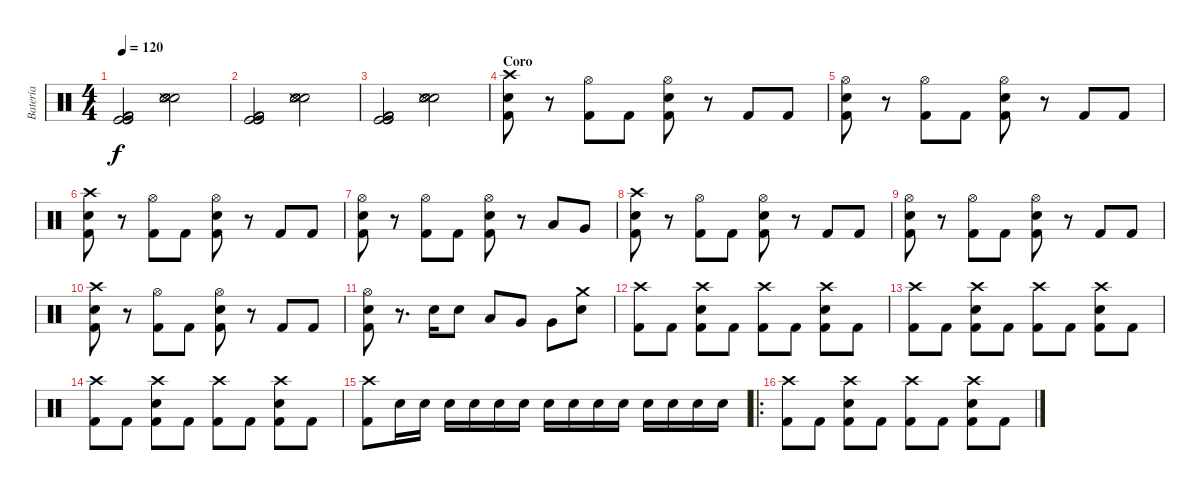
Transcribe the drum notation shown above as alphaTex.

\track ("Batería" "Batería") {instrument percussion}
\staff {score}
\articulation defaults
\ts (4 4)
\tempo 120
\clef neutral
\ks c
("Kick (hit) 2" "Kick (hit)" "Kick (hit) 2" "Kick (hit)" "Kick (hit) 2" "Kick (hit)").2{dy f} ("Electric Snare (hit)" "Snare (side stick) 3" "Snare (side stick) 3" "Snare (hit) 2" "Snare (side stick) 3" "Snare (hit) 2").2 |
("Kick (hit) 2" "Kick (hit)" "Kick (hit) 2" "Kick (hit)" "Kick (hit) 2" "Kick (hit)").2 ("Electric Snare (hit)" "Snare (side stick) 3" "Snare (side stick) 3" "Snare (hit) 2" "Snare (side stick) 3" "Snare (hit) 2").2 |
("Kick (hit) 2" "Kick (hit)" "Kick (hit) 2" "Kick (hit)" "Kick (hit) 2" "Kick (hit)").2 ("Electric Snare (hit)" "Snare (side stick) 3" "Snare (side stick) 3" "Snare (hit) 2" "Snare (side stick) 3" "Snare (hit) 2").2 |
\section ("" "Coro")
("Crash high (hit)" "Electric Snare (hit)" "Kick (hit) 2").8 r.8 ("Hi-Hat (open)" "Kick (hit) 2").8 "Kick (hit) 2".8 ("Electric Snare (hit)" "Hi-Hat (open)" "Kick (hit) 2").8 r.8 "Kick (hit) 2".8 "Kick (hit) 2".8 |
("Hi-Hat (open)" "Electric Snare (hit)" "Kick (hit) 2").8 r.8 ("Hi-Hat (open)" "Kick (hit) 2").8 "Kick (hit) 2".8 ("Electric Snare (hit)" "Hi-Hat (open)" "Kick (hit) 2").8 r.8 "Kick (hit) 2".8 "Kick (hit) 2".8 |
("Crash high (hit)" "Electric Snare (hit)" "Kick (hit) 2").8 r.8 ("Hi-Hat (open)" "Kick (hit) 2").8 "Kick (hit) 2".8 ("Electric Snare (hit)" "Hi-Hat (open)" "Kick (hit) 2").8 r.8 "Kick (hit) 2".8 "Kick (hit) 2".8 |
("Hi-Hat (open)" "Electric Snare (hit)" "Kick (hit) 2").8 r.8 ("Hi-Hat (open)" "Kick (hit) 2").8 "Kick (hit) 2".8 ("Electric Snare (hit)" "Hi-Hat (open)" "Kick (hit) 2").8 r.8 "Low Tom (hit)".8 "Very Low Tom (hit)".8 |
("Crash high (hit)" "Electric Snare (hit)" "Kick (hit) 2").8 r.8 ("Hi-Hat (open)" "Kick (hit) 2").8 "Kick (hit) 2".8 ("Electric Snare (hit)" "Hi-Hat (open)" "Kick (hit) 2").8 r.8 "Kick (hit) 2".8 "Kick (hit) 2".8 |
("Hi-Hat (open)" "Electric Snare (hit)" "Kick (hit) 2").8 r.8 ("Hi-Hat (open)" "Kick (hit) 2").8 "Kick (hit) 2".8 ("Electric Snare (hit)" "Hi-Hat (open)" "Kick (hit) 2").8 r.8 "Kick (hit) 2".8 "Kick (hit) 2".8 |
("Crash high (hit)" "Electric Snare (hit)" "Kick (hit) 2").8 r.8 ("Hi-Hat (open)" "Kick (hit) 2").8 "Kick (hit) 2".8 ("Electric Snare (hit)" "Hi-Hat (open)" "Kick (hit) 2").8 r.8 "Kick (hit) 2".8 "Kick (hit) 2".8 |
("Hi-Hat (open)" "Electric Snare (hit)" "Kick (hit) 2").8 r.8{d} "Electric Snare (hit)".16 "Electric Snare (hit)".8 "Low Tom (hit)".8 "Very Low Tom (hit)".8 "Very Low Tom (hit)".8 ("Crash medium (hit)" "Electric Snare (hit)").8 |
("Kick (hit) 2" "Crash high (hit)").8 "Kick (hit) 2".8 ("Kick (hit) 2" "Electric Snare (hit)" "Crash high (hit)").8 "Kick (hit) 2".8 ("Kick (hit) 2" "Crash high (hit)").8 "Kick (hit) 2".8 ("Kick (hit) 2" "Electric Snare (hit)" "Crash high (hit)").8 "Kick (hit) 2".8 |
("Kick (hit) 2" "Crash high (hit)").8 "Kick (hit) 2".8 ("Kick (hit) 2" "Electric Snare (hit)" "Crash high (hit)").8 "Kick (hit) 2".8 ("Kick (hit) 2" "Crash high (hit)").8 "Kick (hit) 2".8 ("Kick (hit) 2" "Electric Snare (hit)" "Crash high (hit)").8 "Kick (hit) 2".8 |
("Kick (hit) 2" "Crash high (hit)").8 "Kick (hit) 2".8 ("Kick (hit) 2" "Electric Snare (hit)" "Crash high (hit)").8 "Kick (hit) 2".8 ("Kick (hit) 2" "Crash high (hit)").8 "Kick (hit) 2".8 ("Kick (hit) 2" "Electric Snare (hit)" "Crash high (hit)").8 "Kick (hit) 2".8 |
("Kick (hit) 2" "Crash high (hit)").8 "Electric Snare (hit)".16 "Electric Snare (hit)".16 "Electric Snare (hit)".16 "Electric Snare (hit)".16 "Electric Snare (hit)".16 "Electric Snare (hit)".16 "Electric Snare (hit)".16 "Electric Snare (hit)".16 "Electric Snare (hit)".16 "Electric Snare (hit)".16 "Electric Snare (hit)".16 "Electric Snare (hit)".16 "Electric Snare (hit)".16 "Electric Snare (hit)".16 |
\ro
("Kick (hit) 2" "Crash high (hit)").8 "Kick (hit) 2".8 ("Kick (hit) 2" "Electric Snare (hit)" "Crash high (hit)").8 "Kick (hit) 2".8 ("Kick (hit) 2" "Crash high (hit)").8 "Kick (hit) 2".8 ("Kick (hit) 2" "Electric Snare (hit)" "Crash high (hit)").8 "Kick (hit) 2".8
